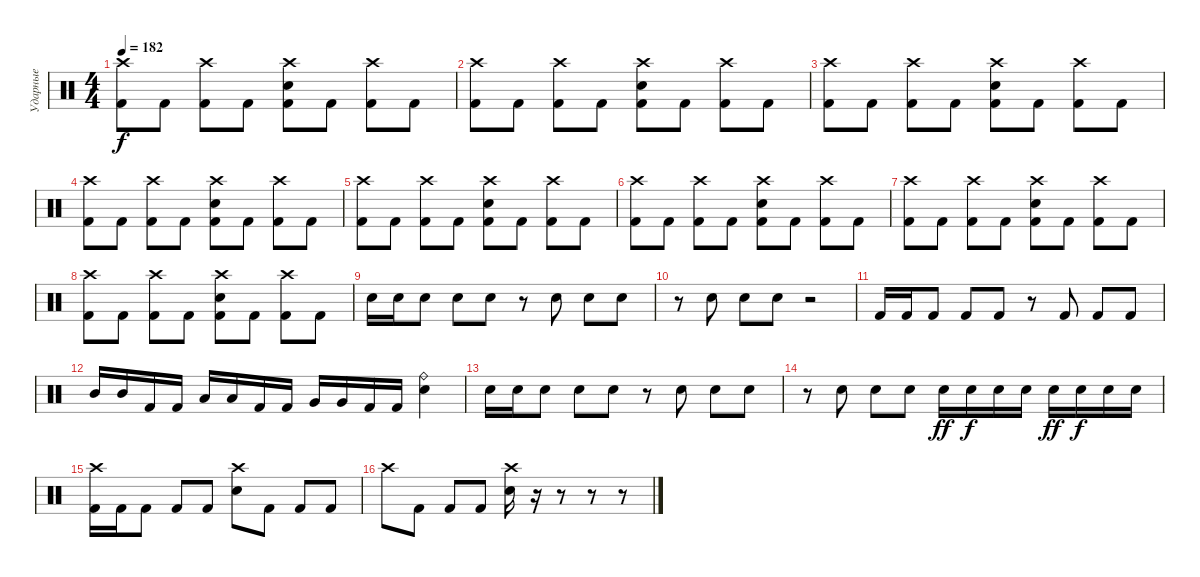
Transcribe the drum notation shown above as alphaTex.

\track ("Ударные" "Ударные") {instrument percussion}
\staff {score}
\articulation defaults
\ts (4 4)
\tempo 182
\clef neutral
\ks c
("Crash high (hit)" "Kick (hit) 2").8{dy f} "Kick (hit) 2".8 ("Crash high (hit)" "Kick (hit) 2").8 "Kick (hit) 2".8 ("Crash high (hit)" "Electric Snare (hit)" "Kick (hit) 2").8 "Kick (hit) 2".8 ("Crash high (hit)" "Kick (hit) 2").8 "Kick (hit) 2".8 |
("Crash high (hit)" "Kick (hit) 2").8 "Kick (hit) 2".8 ("Crash high (hit)" "Kick (hit) 2").8 "Kick (hit) 2".8 ("Crash high (hit)" "Electric Snare (hit)" "Kick (hit) 2").8 "Kick (hit) 2".8 ("Crash high (hit)" "Kick (hit) 2").8 "Kick (hit) 2".8 |
("Crash high (hit)" "Kick (hit) 2").8 "Kick (hit) 2".8 ("Crash high (hit)" "Kick (hit) 2").8 "Kick (hit) 2".8 ("Crash high (hit)" "Electric Snare (hit)" "Kick (hit) 2").8 "Kick (hit) 2".8 ("Crash high (hit)" "Kick (hit) 2").8 "Kick (hit) 2".8 |
("Crash high (hit)" "Kick (hit) 2").8 "Kick (hit) 2".8 ("Crash high (hit)" "Kick (hit) 2").8 "Kick (hit) 2".8 ("Crash high (hit)" "Electric Snare (hit)" "Kick (hit) 2").8 "Kick (hit) 2".8 ("Crash high (hit)" "Kick (hit) 2").8 "Kick (hit) 2".8 |
("Crash high (hit)" "Kick (hit) 2").8 "Kick (hit) 2".8 ("Crash high (hit)" "Kick (hit) 2").8 "Kick (hit) 2".8 ("Crash high (hit)" "Electric Snare (hit)" "Kick (hit) 2").8 "Kick (hit) 2".8 ("Crash high (hit)" "Kick (hit) 2").8 "Kick (hit) 2".8 |
("Crash high (hit)" "Kick (hit) 2").8 "Kick (hit) 2".8 ("Crash high (hit)" "Kick (hit) 2").8 "Kick (hit) 2".8 ("Crash high (hit)" "Electric Snare (hit)" "Kick (hit) 2").8 "Kick (hit) 2".8 ("Crash high (hit)" "Kick (hit) 2").8 "Kick (hit) 2".8 |
("Crash high (hit)" "Kick (hit) 2").8 "Kick (hit) 2".8 ("Crash high (hit)" "Kick (hit) 2").8 "Kick (hit) 2".8 ("Crash high (hit)" "Electric Snare (hit)" "Kick (hit) 2").8 "Kick (hit) 2".8 ("Crash high (hit)" "Kick (hit) 2").8 "Kick (hit) 2".8 |
("Crash high (hit)" "Kick (hit) 2").8 "Kick (hit) 2".8 ("Crash high (hit)" "Kick (hit) 2").8 "Kick (hit) 2".8 ("Crash high (hit)" "Electric Snare (hit)" "Kick (hit) 2").8 "Kick (hit) 2".8 ("Crash high (hit)" "Kick (hit) 2").8 "Kick (hit) 2".8 |
"Electric Snare (hit)".16 "Electric Snare (hit)".16 "Electric Snare (hit)".8 "Electric Snare (hit)".8 "Electric Snare (hit)".8 r.8 "Electric Snare (hit)".8 "Electric Snare (hit)".8 "Electric Snare (hit)".8 |
r.8 "Electric Snare (hit)".8 "Electric Snare (hit)".8 "Electric Snare (hit)".8 r.2 |
"Kick (hit) 2".16 "Kick (hit) 2".16 "Kick (hit) 2".8 "Kick (hit) 2".8 "Kick (hit) 2".8 r.8 "Kick (hit) 2".8 "Kick (hit) 2".8 "Kick (hit) 2".8 |
"Mid Tom (hit)".16 "Mid Tom (hit)".16 "Kick (hit) 2".16 "Kick (hit) 2".16 "Low Tom (hit)".16 "Low Tom (hit)".16 "Kick (hit) 2".16 "Kick (hit) 2".16 "Very Low Tom (hit)".16 "Very Low Tom (hit)".16 "Kick (hit) 2".16 "Kick (hit) 2".16 ("Ride (bell)" "Electric Snare (hit)").4 |
"Electric Snare (hit)".16 "Electric Snare (hit)".16 "Electric Snare (hit)".8 "Electric Snare (hit)".8 "Electric Snare (hit)".8 r.8 "Electric Snare (hit)".8 "Electric Snare (hit)".8 "Electric Snare (hit)".8 |
r.8 "Electric Snare (hit)".8 "Electric Snare (hit)".8 "Electric Snare (hit)".8 "Electric Snare (hit)".16{dy ff} "Electric Snare (hit)".16{dy f} "Electric Snare (hit)".16 "Electric Snare (hit)".16 "Electric Snare (hit)".16{dy ff} "Electric Snare (hit)".16{dy f} "Electric Snare (hit)".16 "Electric Snare (hit)".16 |
("Crash high (hit)" "Kick (hit) 2").16 "Kick (hit) 2".16 "Kick (hit) 2".8 "Kick (hit) 2".8 "Kick (hit) 2".8 ("Crash high (hit)" "Electric Snare (hit)").8 "Kick (hit) 2".8 "Kick (hit) 2".8 "Kick (hit) 2".8 |
"Crash high (hit)".8 "Kick (hit) 2".8 "Kick (hit) 2".8 "Kick (hit) 2".8 ("Crash high (hit)" "Electric Snare (hit)").16 r.16 r.8 r.8 r.8
